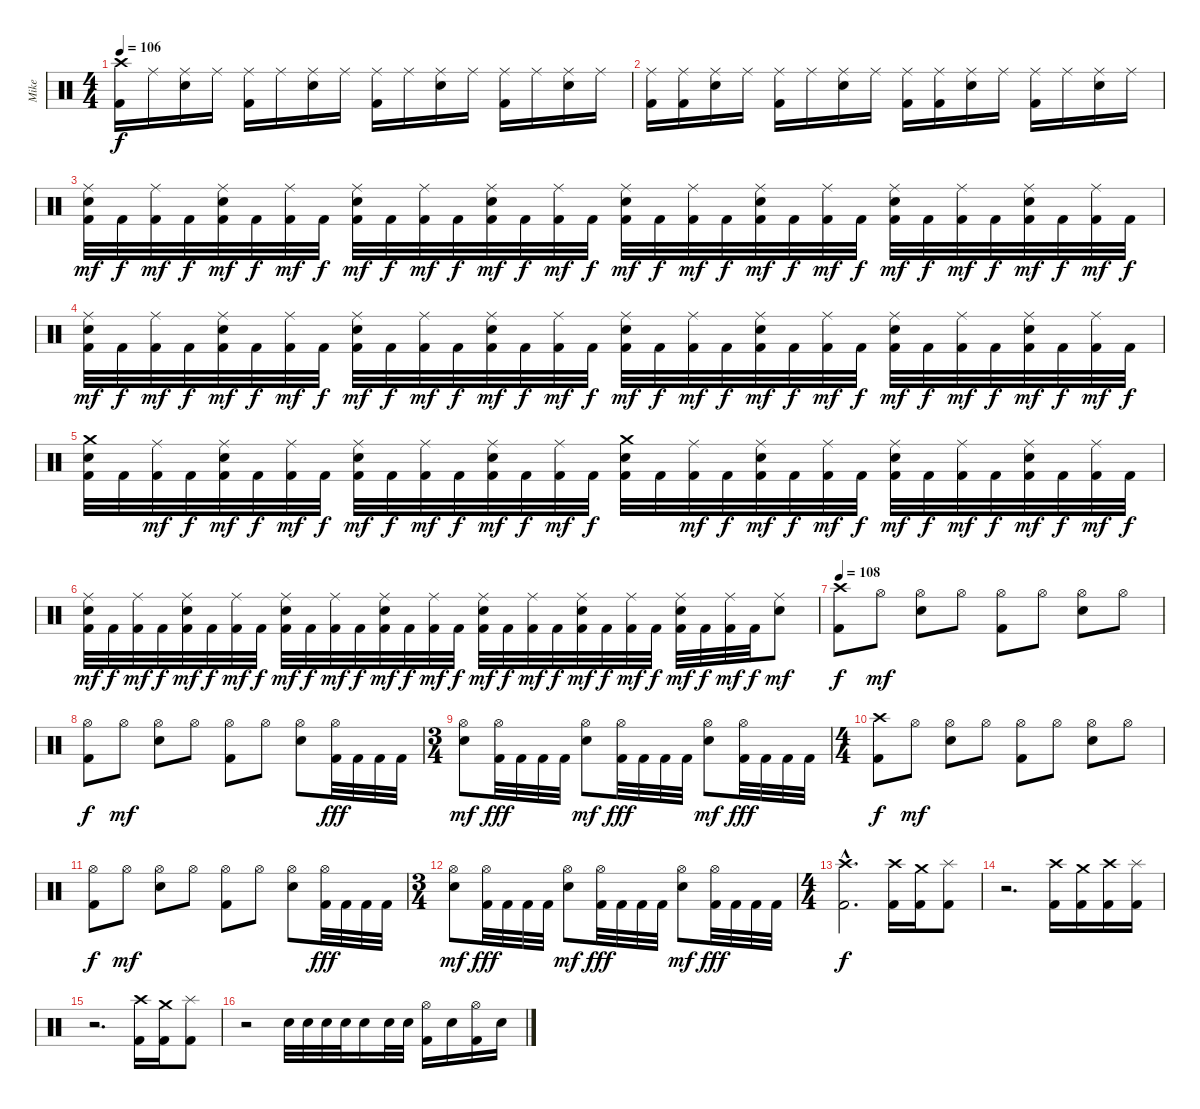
\track ("Mike" "Mike") {instrument percussion}
\staff {score}
\articulation defaults
\ts (4 4)
\tempo 106
\clef neutral
\ks c
("Crash high (hit)" "Kick (hit) 2").16{dy f} "Ride (middle)".16 ("Ride (middle)" "Snare (hit) 2").16 "Ride (middle)".16 ("Ride (middle)" "Kick (hit) 2").16 "Ride (middle)".16 ("Ride (middle)" "Snare (hit) 2").16 "Ride (middle)".16 ("Ride (middle)" "Kick (hit) 2").16 "Ride (middle)".16 ("Ride (middle)" "Snare (hit) 2").16 "Ride (middle)".16 ("Ride (middle)" "Kick (hit) 2").16 "Ride (middle)".16 ("Ride (middle)" "Snare (hit) 2").16 "Ride (middle)".16 |
("Ride (middle)" "Kick (hit) 2").16 ("Ride (middle)" "Kick (hit) 2").16 ("Ride (middle)" "Snare (hit) 2").16 "Ride (middle)".16 ("Ride (middle)" "Kick (hit) 2").16 "Ride (middle)".16 ("Ride (middle)" "Snare (hit) 2").16 "Ride (middle)".16 ("Ride (middle)" "Kick (hit) 2").16 ("Ride (middle)" "Kick (hit) 2").16 ("Ride (middle)" "Snare (hit) 2").16 "Ride (middle)".16 ("Ride (middle)" "Kick (hit) 2").16 "Ride (middle)".16 ("Ride (middle)" "Snare (hit) 2").16 "Ride (middle)".16 |
("Ride (middle)" "Snare (hit) 2" "Kick (hit) 2").32{dy mf} "Kick (hit) 2".32{dy f} ("Ride (middle)" "Kick (hit) 2").32{dy mf} "Kick (hit) 2".32{dy f} ("Ride (middle)" "Snare (hit) 2" "Kick (hit) 2").32{dy mf} "Kick (hit) 2".32{dy f} ("Ride (middle)" "Kick (hit) 2").32{dy mf} "Kick (hit) 2".32{dy f} ("Ride (middle)" "Snare (hit) 2" "Kick (hit) 2").32{dy mf} "Kick (hit) 2".32{dy f} ("Ride (middle)" "Kick (hit) 2").32{dy mf} "Kick (hit) 2".32{dy f} ("Ride (middle)" "Snare (hit) 2" "Kick (hit) 2").32{dy mf} "Kick (hit) 2".32{dy f} ("Ride (middle)" "Kick (hit) 2").32{dy mf} "Kick (hit) 2".32{dy f} ("Ride (middle)" "Snare (hit) 2" "Kick (hit) 2").32{dy mf} "Kick (hit) 2".32{dy f} ("Ride (middle)" "Kick (hit) 2").32{dy mf} "Kick (hit) 2".32{dy f} ("Ride (middle)" "Snare (hit) 2" "Kick (hit) 2").32{dy mf} "Kick (hit) 2".32{dy f} ("Ride (middle)" "Kick (hit) 2").32{dy mf} "Kick (hit) 2".32{dy f} ("Ride (middle)" "Snare (hit) 2" "Kick (hit) 2").32{dy mf} "Kick (hit) 2".32{dy f} ("Ride (middle)" "Kick (hit) 2").32{dy mf} "Kick (hit) 2".32{dy f} ("Ride (middle)" "Snare (hit) 2" "Kick (hit) 2").32{dy mf} "Kick (hit) 2".32{dy f} ("Ride (middle)" "Kick (hit) 2").32{dy mf} "Kick (hit) 2".32{dy f} |
("Ride (middle)" "Snare (hit) 2" "Kick (hit) 2").32{dy mf} "Kick (hit) 2".32{dy f} ("Ride (middle)" "Kick (hit) 2").32{dy mf} "Kick (hit) 2".32{dy f} ("Ride (middle)" "Snare (hit) 2" "Kick (hit) 2").32{dy mf} "Kick (hit) 2".32{dy f} ("Ride (middle)" "Kick (hit) 2").32{dy mf} "Kick (hit) 2".32{dy f} ("Ride (middle)" "Snare (hit) 2" "Kick (hit) 2").32{dy mf} "Kick (hit) 2".32{dy f} ("Ride (middle)" "Kick (hit) 2").32{dy mf} "Kick (hit) 2".32{dy f} ("Ride (middle)" "Snare (hit) 2" "Kick (hit) 2").32{dy mf} "Kick (hit) 2".32{dy f} ("Ride (middle)" "Kick (hit) 2").32{dy mf} "Kick (hit) 2".32{dy f} ("Ride (middle)" "Snare (hit) 2" "Kick (hit) 2").32{dy mf} "Kick (hit) 2".32{dy f} ("Ride (middle)" "Kick (hit) 2").32{dy mf} "Kick (hit) 2".32{dy f} ("Ride (middle)" "Snare (hit) 2" "Kick (hit) 2").32{dy mf} "Kick (hit) 2".32{dy f} ("Ride (middle)" "Kick (hit) 2").32{dy mf} "Kick (hit) 2".32{dy f} ("Ride (middle)" "Snare (hit) 2" "Kick (hit) 2").32{dy mf} "Kick (hit) 2".32{dy f} ("Ride (middle)" "Kick (hit) 2").32{dy mf} "Kick (hit) 2".32{dy f} ("Ride (middle)" "Snare (hit) 2" "Kick (hit) 2").32{dy mf} "Kick (hit) 2".32{dy f} ("Ride (middle)" "Kick (hit) 2").32{dy mf} "Kick (hit) 2".32{dy f} |
("Crash medium (hit)" "Snare (hit) 2" "Kick (hit) 2").32 "Kick (hit) 2".32 ("Ride (middle)" "Kick (hit) 2").32{dy mf} "Kick (hit) 2".32{dy f} ("Ride (middle)" "Snare (hit) 2" "Kick (hit) 2").32{dy mf} "Kick (hit) 2".32{dy f} ("Ride (middle)" "Kick (hit) 2").32{dy mf} "Kick (hit) 2".32{dy f} ("Ride (middle)" "Snare (hit) 2" "Kick (hit) 2").32{dy mf} "Kick (hit) 2".32{dy f} ("Ride (middle)" "Kick (hit) 2").32{dy mf} "Kick (hit) 2".32{dy f} ("Ride (middle)" "Snare (hit) 2" "Kick (hit) 2").32{dy mf} "Kick (hit) 2".32{dy f} ("Ride (middle)" "Kick (hit) 2").32{dy mf} "Kick (hit) 2".32{dy f} ("Crash medium (hit)" "Snare (hit) 2" "Kick (hit) 2").32 "Kick (hit) 2".32 ("Ride (middle)" "Kick (hit) 2").32{dy mf} "Kick (hit) 2".32{dy f} ("Ride (middle)" "Snare (hit) 2" "Kick (hit) 2").32{dy mf} "Kick (hit) 2".32{dy f} ("Ride (middle)" "Kick (hit) 2").32{dy mf} "Kick (hit) 2".32{dy f} ("Ride (middle)" "Snare (hit) 2" "Kick (hit) 2").32{dy mf} "Kick (hit) 2".32{dy f} ("Ride (middle)" "Kick (hit) 2").32{dy mf} "Kick (hit) 2".32{dy f} ("Ride (middle)" "Snare (hit) 2" "Kick (hit) 2").32{dy mf} "Kick (hit) 2".32{dy f} ("Ride (middle)" "Kick (hit) 2").32{dy mf} "Kick (hit) 2".32{dy f} |
("Ride (middle)" "Snare (hit) 2" "Kick (hit) 2").32{dy mf} "Kick (hit) 2".32{dy f} ("Ride (middle)" "Kick (hit) 2").32{dy mf} "Kick (hit) 2".32{dy f} ("Ride (middle)" "Snare (hit) 2" "Kick (hit) 2").32{dy mf} "Kick (hit) 2".32{dy f} ("Ride (middle)" "Kick (hit) 2").32{dy mf} "Kick (hit) 2".32{dy f} ("Ride (middle)" "Snare (hit) 2" "Kick (hit) 2").32{dy mf} "Kick (hit) 2".32{dy f} ("Ride (middle)" "Kick (hit) 2").32{dy mf} "Kick (hit) 2".32{dy f} ("Ride (middle)" "Snare (hit) 2" "Kick (hit) 2").32{dy mf} "Kick (hit) 2".32{dy f} ("Ride (middle)" "Kick (hit) 2").32{dy mf} "Kick (hit) 2".32{dy f} ("Ride (middle)" "Snare (hit) 2" "Kick (hit) 2").32{dy mf} "Kick (hit) 2".32{dy f} ("Ride (middle)" "Kick (hit) 2").32{dy mf} "Kick (hit) 2".32{dy f} ("Ride (middle)" "Snare (hit) 2" "Kick (hit) 2").32{dy mf} "Kick (hit) 2".32{dy f} ("Ride (middle)" "Kick (hit) 2").32{dy mf} "Kick (hit) 2".32{dy f} ("Ride (middle)" "Snare (hit) 2" "Kick (hit) 2").32{dy mf} "Kick (hit) 2".32{dy f} ("Ride (middle)" "Kick (hit) 2").32{dy mf} "Kick (hit) 2".32{dy f} ("Ride (middle)" "Snare (hit) 2").8{dy mf} |
\tempo 108
("Crash high (hit)" "Kick (hit) 2").8{dy f} "Hi-Hat (open)".8{dy mf} ("Hi-Hat (open)" "Snare (hit) 2").8 "Hi-Hat (open)".8 ("Hi-Hat (open)" "Kick (hit) 2").8 "Hi-Hat (open)".8 ("Hi-Hat (open)" "Snare (hit) 2").8 "Hi-Hat (open)".8 |
("Hi-Hat (open)" "Kick (hit) 2").8{dy f} "Hi-Hat (open)".8{dy mf} ("Hi-Hat (open)" "Snare (hit) 2").8 "Hi-Hat (open)".8 ("Hi-Hat (open)" "Kick (hit) 2").8 "Hi-Hat (open)".8 ("Hi-Hat (open)" "Snare (hit) 2").8 ("Hi-Hat (open)" "Kick (hit) 2").32{dy fff} "Kick (hit) 2".32 "Kick (hit) 2".32 "Kick (hit) 2".32 |
\ts (3 4)
("Hi-Hat (open)" "Snare (hit) 2").8{dy mf} ("Hi-Hat (open)" "Kick (hit) 2").32{dy fff} "Kick (hit) 2".32 "Kick (hit) 2".32 "Kick (hit) 2".32 ("Hi-Hat (open)" "Snare (hit) 2").8{dy mf} ("Hi-Hat (open)" "Kick (hit) 2").32{dy fff} "Kick (hit) 2".32 "Kick (hit) 2".32 "Kick (hit) 2".32 ("Hi-Hat (open)" "Snare (hit) 2").8{dy mf} ("Hi-Hat (open)" "Kick (hit) 2").32{dy fff} "Kick (hit) 2".32 "Kick (hit) 2".32 "Kick (hit) 2".32 |
\ts (4 4)
("Crash high (hit)" "Kick (hit) 2").8{dy f} "Hi-Hat (open)".8{dy mf} ("Hi-Hat (open)" "Snare (hit) 2").8 "Hi-Hat (open)".8 ("Hi-Hat (open)" "Kick (hit) 2").8 "Hi-Hat (open)".8 ("Hi-Hat (open)" "Snare (hit) 2").8 "Hi-Hat (open)".8 |
("Hi-Hat (open)" "Kick (hit) 2").8{dy f} "Hi-Hat (open)".8{dy mf} ("Hi-Hat (open)" "Snare (hit) 2").8 "Hi-Hat (open)".8 ("Hi-Hat (open)" "Kick (hit) 2").8 "Hi-Hat (open)".8 ("Hi-Hat (open)" "Snare (hit) 2").8 ("Hi-Hat (open)" "Kick (hit) 2").32{dy fff} "Kick (hit) 2".32 "Kick (hit) 2".32 "Kick (hit) 2".32 |
\ts (3 4)
("Hi-Hat (open)" "Snare (hit) 2").8{dy mf} ("Hi-Hat (open)" "Kick (hit) 2").32{dy fff} "Kick (hit) 2".32 "Kick (hit) 2".32 "Kick (hit) 2".32 ("Hi-Hat (open)" "Snare (hit) 2").8{dy mf} ("Hi-Hat (open)" "Kick (hit) 2").32{dy fff} "Kick (hit) 2".32 "Kick (hit) 2".32 "Kick (hit) 2".32 ("Hi-Hat (open)" "Snare (hit) 2").8{dy mf} ("Hi-Hat (open)" "Kick (hit) 2").32{dy fff} "Kick (hit) 2".32 "Kick (hit) 2".32 "Kick (hit) 2".32 |
\ts (4 4)
("Crash high (hit)"{hac} "Kick (hit) 2"{hac}).2{d dy f} ("Crash high (hit)" "Kick (hit) 2").16 ("Crash medium (hit)" "Kick (hit) 2").16 ("Splash (hit)" "Kick (hit) 2").8 |
r.2{d} ("Crash high (hit)" "Kick (hit) 2").16 ("Crash medium (hit)" "Kick (hit) 2").16 ("Crash high (hit)" "Kick (hit) 2").16 ("Splash (hit)" "Kick (hit) 2").16 |
r.2{d} ("Crash high (hit)" "Kick (hit) 2").16 ("Crash medium (hit)" "Kick (hit) 2").16 ("Splash (hit)" "Kick (hit) 2").8 |
r.2 "Snare (hit) 2".32 "Snare (hit) 2".32 "Snare (hit) 2".32 "Snare (hit) 2".32 "Snare (hit) 2".16 "Snare (hit) 2".32 "Snare (hit) 2".32 ("Hi-Hat (open)" "Kick (hit) 2").16 "Snare (hit) 2".16 ("Hi-Hat (open)" "Kick (hit) 2").16 "Snare (hit) 2".16
